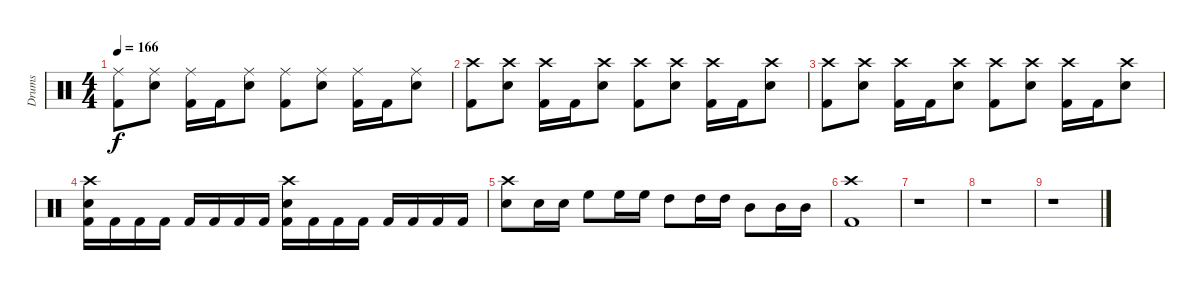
\track ("Drums" "Drums") {instrument percussion}
\staff {score}
\articulation defaults
\ts (4 4)
\tempo 166
\clef neutral
\ks c
("Ride (middle)" "Kick (hit) 2").8{dy f} ("Ride (middle)" "Electric Snare (hit)").8 ("Ride (middle)" "Kick (hit) 2").16 "Kick (hit) 2".16 ("Ride (middle)" "Electric Snare (hit)").8 ("Ride (middle)" "Kick (hit) 2").8 ("Ride (middle)" "Electric Snare (hit)").8 ("Ride (middle)" "Kick (hit) 2").16 "Kick (hit) 2".16 ("Ride (middle)" "Electric Snare (hit)").8 |
("Crash high (hit)" "Kick (hit) 2").8 ("Crash high (hit)" "Electric Snare (hit)").8 ("Crash high (hit)" "Kick (hit) 2").16 "Kick (hit) 2".16 ("Crash high (hit)" "Electric Snare (hit)").8 ("Crash high (hit)" "Kick (hit) 2").8 ("Crash high (hit)" "Electric Snare (hit)").8 ("Crash high (hit)" "Kick (hit) 2").16 "Kick (hit) 2".16 ("Crash high (hit)" "Electric Snare (hit)").8 |
("Crash high (hit)" "Kick (hit) 2").8 ("Crash high (hit)" "Electric Snare (hit)").8 ("Crash high (hit)" "Kick (hit) 2").16 "Kick (hit) 2".16 ("Crash high (hit)" "Electric Snare (hit)").8 ("Crash high (hit)" "Kick (hit) 2").8 ("Crash high (hit)" "Electric Snare (hit)").8 ("Crash high (hit)" "Kick (hit) 2").16 "Kick (hit) 2".16 ("Crash high (hit)" "Electric Snare (hit)").8 |
("Crash high (hit)" "Electric Snare (hit)" "Kick (hit) 2").16 "Kick (hit) 2".16 "Kick (hit) 2".16 "Kick (hit) 2".16 "Kick (hit) 2".16 "Kick (hit) 2".16 "Kick (hit) 2".16 "Kick (hit) 2".16 ("Crash high (hit)" "Electric Snare (hit)" "Kick (hit) 2").16 "Kick (hit) 2".16 "Kick (hit) 2".16 "Kick (hit) 2".16 "Kick (hit) 2".16 "Kick (hit) 2".16 "Kick (hit) 2".16 "Kick (hit) 2".16 |
("Crash high (hit)" "Electric Snare (hit)").8 "Electric Snare (hit)".16 "Electric Snare (hit)".16 "High Floor Tom (hit)".8 "High Floor Tom (hit)".16 "High Floor Tom (hit)".16 "High Tom (hit)".8 "High Tom (hit)".16 "High Tom (hit)".16 "Mid Tom (hit)".8 "Mid Tom (hit)".16 "Mid Tom (hit)".16 |
("Crash high (hit)" "Kick (hit) 2").1 |
r.1 |
r.1 |
r.1
